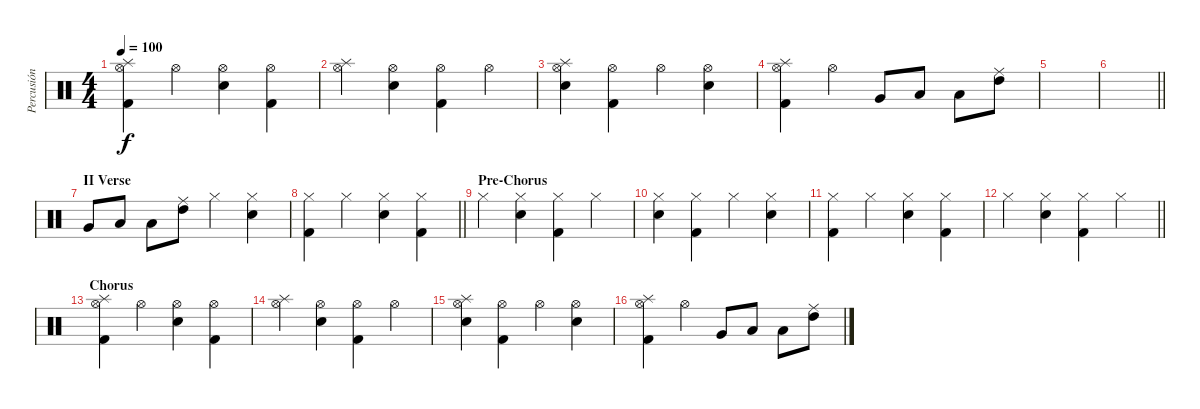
\track ("Percusión" "Percusión") {instrument percussion}
\staff {score}
\articulation defaults
\ts (4 4)
\tempo 100
\clef neutral
\ks c
("Splash (hit)" "Hi-Hat (open)" "Kick (hit) 2").4{dy f} "Hi-Hat (open)".4 ("Snare (hit) 2" "Hi-Hat (open)").4 ("Hi-Hat (open)" "Kick (hit) 2").4 |
("Splash (hit)" "Hi-Hat (open)").4 ("Snare (hit) 2" "Hi-Hat (open)").4 ("Hi-Hat (open)" "Kick (hit) 2").4 "Hi-Hat (open)".4 |
("Splash (hit)" "Snare (hit) 2" "Hi-Hat (open)").4 ("Hi-Hat (open)" "Kick (hit) 2").4 "Hi-Hat (open)".4 ("Snare (hit) 2" "Hi-Hat (open)").4 |
("Splash (hit)" "Hi-Hat (open)" "Kick (hit) 2").4 "Hi-Hat (open)".4 "Very Low Tom (hit)".8 "Low Floor Tom (hit)".8 "Low Tom (hit)".8 ("High Tom (hit)" "Ride (middle)").8 |
|
\barLineRight lightlight
|
\section ("" "II Verse")
"Very Low Tom (hit)".8 "Low Floor Tom (hit)".8 "Low Tom (hit)".8 ("High Tom (hit)" "Ride (middle)").8 "Hi-Hat (closed)".4 ("Snare (hit) 2" "Hi-Hat (closed)").4 |
\barLineRight lightlight
("Hi-Hat (closed)" "Kick (hit) 2").4 "Hi-Hat (closed)".4 ("Snare (hit) 2" "Hi-Hat (closed)").4 ("Hi-Hat (closed)" "Kick (hit) 2").4 |
\section ("" "Pre-Chorus")
"Hi-Hat (closed)".4 ("Snare (hit) 2" "Hi-Hat (closed)").4 ("Hi-Hat (closed)" "Kick (hit) 2").4 "Hi-Hat (closed)".4 |
("Snare (hit) 2" "Hi-Hat (closed)").4 ("Hi-Hat (closed)" "Kick (hit) 2").4 "Hi-Hat (closed)".4 ("Snare (hit) 2" "Hi-Hat (closed)").4 |
("Hi-Hat (closed)" "Kick (hit) 2").4 "Hi-Hat (closed)".4 ("Snare (hit) 2" "Hi-Hat (closed)").4 ("Hi-Hat (closed)" "Kick (hit) 2").4 |
\barLineRight lightlight "Hi-Hat (closed)".4
("Snare (hit) 2" "Hi-Hat (closed)").4 ("Hi-Hat (closed)" "Kick (hit) 2").4 "Hi-Hat (closed)".4 |
\section ("" "Chorus")
("Splash (hit)" "Hi-Hat (open)" "Kick (hit) 2").4 "Hi-Hat (open)".4 ("Snare (hit) 2" "Hi-Hat (open)").4 ("Hi-Hat (open)" "Kick (hit) 2").4 |
("Splash (hit)" "Hi-Hat (open)").4 ("Snare (hit) 2" "Hi-Hat (open)").4 ("Hi-Hat (open)" "Kick (hit) 2").4 "Hi-Hat (open)".4 |
("Splash (hit)" "Snare (hit) 2" "Hi-Hat (open)").4 ("Hi-Hat (open)" "Kick (hit) 2").4 "Hi-Hat (open)".4 ("Snare (hit) 2" "Hi-Hat (open)").4 |
("Splash (hit)" "Hi-Hat (open)" "Kick (hit) 2").4 "Hi-Hat (open)".4 "Very Low Tom (hit)".8 "Low Floor Tom (hit)".8 "Low Tom (hit)".8 ("High Tom (hit)" "Ride (middle)").8
